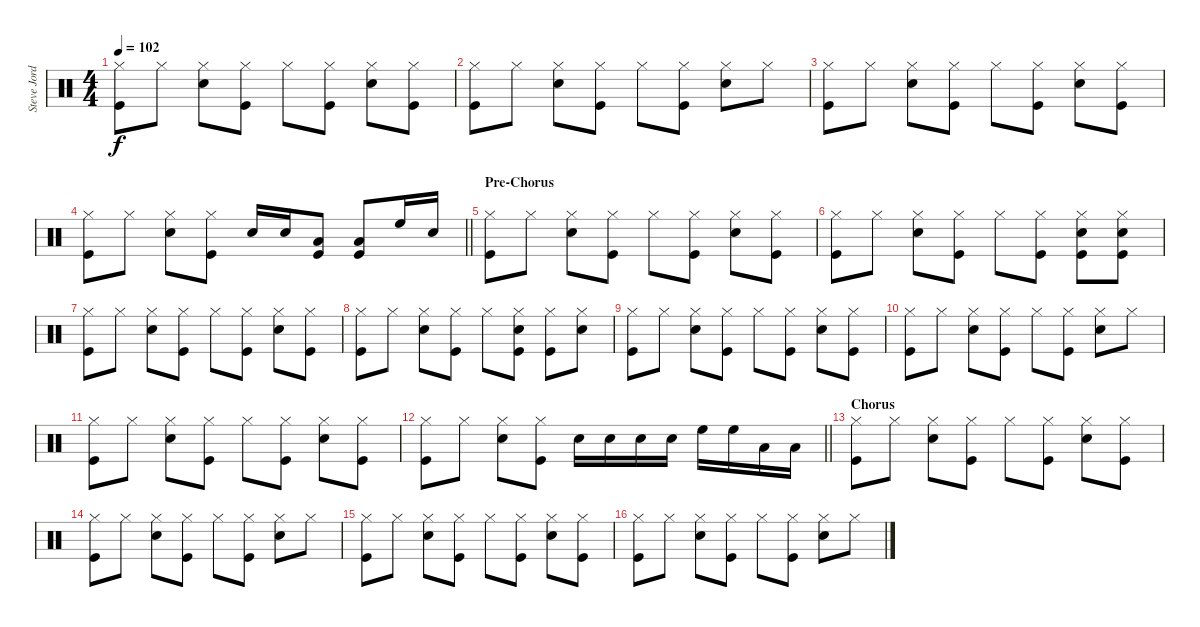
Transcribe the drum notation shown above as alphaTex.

\track ("Steve Jordan (Drums)" "Steve Jord") {instrument percussion}
\staff {score}
\articulation defaults
\ts (4 4)
\tempo 102
\clef neutral
\ks c
("Hi-Hat (closed)" "Kick (hit)").8{dy f} "Hi-Hat (closed)".8 ("Hi-Hat (closed)" "Snare (hit) 2").8 ("Hi-Hat (closed)" "Kick (hit)").8 "Hi-Hat (closed)".8 ("Hi-Hat (closed)" "Kick (hit)").8 ("Hi-Hat (closed)" "Snare (hit) 2").8 ("Hi-Hat (closed)" "Kick (hit)").8 |
("Hi-Hat (closed)" "Kick (hit)").8 "Hi-Hat (closed)".8 ("Hi-Hat (closed)" "Snare (hit) 2").8 ("Hi-Hat (closed)" "Kick (hit)").8 "Hi-Hat (closed)".8 ("Hi-Hat (closed)" "Kick (hit)").8 ("Hi-Hat (closed)" "Snare (hit) 2").8 "Hi-Hat (closed)".8 |
("Hi-Hat (closed)" "Kick (hit)").8 "Hi-Hat (closed)".8 ("Hi-Hat (closed)" "Snare (hit) 2").8 ("Hi-Hat (closed)" "Kick (hit)").8 "Hi-Hat (closed)".8 ("Hi-Hat (closed)" "Kick (hit)").8 ("Hi-Hat (closed)" "Snare (hit) 2").8 ("Hi-Hat (closed)" "Kick (hit)").8 |
\barLineRight lightlight
("Hi-Hat (closed)" "Kick (hit)").8 "Hi-Hat (closed)".8 ("Hi-Hat (closed)" "Snare (hit) 2").8 ("Hi-Hat (closed)" "Kick (hit)").8 "Snare (hit) 2".16 "Snare (hit) 2".16 ("Low Tom (hit)" "Kick (hit)").8 ("Low Tom (hit)" "Kick (hit)").8 "High Floor Tom (hit)".16 "Snare (hit) 2".16 |
\section ("" "Pre-Chorus")
("Hi-Hat (closed)" "Kick (hit)").8 "Hi-Hat (closed)".8 ("Hi-Hat (closed)" "Snare (hit) 2").8 ("Hi-Hat (closed)" "Kick (hit)").8 "Hi-Hat (closed)".8 ("Hi-Hat (closed)" "Kick (hit)").8 ("Hi-Hat (closed)" "Snare (hit) 2").8 ("Hi-Hat (closed)" "Kick (hit)").8 |
("Hi-Hat (closed)" "Kick (hit)").8 "Hi-Hat (closed)".8 ("Hi-Hat (closed)" "Snare (hit) 2").8 ("Hi-Hat (closed)" "Kick (hit)").8 "Hi-Hat (closed)".8 ("Hi-Hat (closed)" "Kick (hit)").8 ("Hi-Hat (closed)" "Snare (hit) 2" "Kick (hit)").8 ("Hi-Hat (closed)" "Snare (hit) 2" "Kick (hit)").8 |
("Hi-Hat (closed)" "Kick (hit)").8 "Hi-Hat (closed)".8 ("Hi-Hat (closed)" "Snare (hit) 2").8 ("Hi-Hat (closed)" "Kick (hit)").8 "Hi-Hat (closed)".8 ("Hi-Hat (closed)" "Kick (hit)").8 ("Hi-Hat (closed)" "Snare (hit) 2").8 ("Hi-Hat (closed)" "Kick (hit)").8 |
("Hi-Hat (closed)" "Kick (hit)").8 "Hi-Hat (closed)".8 ("Hi-Hat (closed)" "Snare (hit) 2").8 ("Hi-Hat (closed)" "Kick (hit)").8 "Hi-Hat (closed)".8 ("Hi-Hat (closed)" "Snare (hit) 2" "Kick (hit)").8 ("Hi-Hat (closed)" "Kick (hit)").8 ("Hi-Hat (closed)" "Snare (hit) 2").8 |
("Hi-Hat (closed)" "Kick (hit)").8 "Hi-Hat (closed)".8 ("Hi-Hat (closed)" "Snare (hit) 2").8 ("Hi-Hat (closed)" "Kick (hit)").8 "Hi-Hat (closed)".8 ("Hi-Hat (closed)" "Kick (hit)").8 ("Hi-Hat (closed)" "Snare (hit) 2").8 ("Hi-Hat (closed)" "Kick (hit)").8 |
("Hi-Hat (closed)" "Kick (hit)").8 "Hi-Hat (closed)".8 ("Hi-Hat (closed)" "Snare (hit) 2").8 ("Hi-Hat (closed)" "Kick (hit)").8 "Hi-Hat (closed)".8 ("Hi-Hat (closed)" "Kick (hit)").8 ("Hi-Hat (closed)" "Snare (hit) 2").8 "Hi-Hat (closed)".8 |
("Hi-Hat (closed)" "Kick (hit)").8 "Hi-Hat (closed)".8 ("Hi-Hat (closed)" "Snare (hit) 2").8 ("Hi-Hat (closed)" "Kick (hit)").8 "Hi-Hat (closed)".8 ("Hi-Hat (closed)" "Kick (hit)").8 ("Hi-Hat (closed)" "Snare (hit) 2").8 ("Hi-Hat (closed)" "Kick (hit)").8 |
\barLineRight lightlight
("Hi-Hat (closed)" "Kick (hit)").8 "Hi-Hat (closed)".8 ("Hi-Hat (closed)" "Snare (hit) 2").8 ("Hi-Hat (closed)" "Kick (hit)").8 "Snare (hit) 2".16 "Snare (hit) 2".16 "Snare (hit) 2".16 "Snare (hit) 2".16 "High Floor Tom (hit)".16 "High Floor Tom (hit)".16 "Low Tom (hit)".16 "Low Tom (hit)".16 |
\section ("" "Chorus")
("Hi-Hat (closed)" "Kick (hit)").8 "Hi-Hat (closed)".8 ("Hi-Hat (closed)" "Snare (hit) 2").8 ("Hi-Hat (closed)" "Kick (hit)").8 "Hi-Hat (closed)".8 ("Hi-Hat (closed)" "Kick (hit)").8 ("Hi-Hat (closed)" "Snare (hit) 2").8 ("Hi-Hat (closed)" "Kick (hit)").8 |
("Hi-Hat (closed)" "Kick (hit)").8 "Hi-Hat (closed)".8 ("Hi-Hat (closed)" "Snare (hit) 2").8 ("Hi-Hat (closed)" "Kick (hit)").8 "Hi-Hat (closed)".8 ("Hi-Hat (closed)" "Kick (hit)").8 ("Hi-Hat (closed)" "Snare (hit) 2").8 "Hi-Hat (closed)".8 |
("Hi-Hat (closed)" "Kick (hit)").8 "Hi-Hat (closed)".8 ("Hi-Hat (closed)" "Snare (hit) 2").8 ("Hi-Hat (closed)" "Kick (hit)").8 "Hi-Hat (closed)".8 ("Hi-Hat (closed)" "Kick (hit)").8 ("Hi-Hat (closed)" "Snare (hit) 2").8 ("Hi-Hat (closed)" "Kick (hit)").8 |
("Hi-Hat (closed)" "Kick (hit)").8 "Hi-Hat (closed)".8 ("Hi-Hat (closed)" "Snare (hit) 2").8 ("Hi-Hat (closed)" "Kick (hit)").8 "Hi-Hat (closed)".8 ("Hi-Hat (closed)" "Kick (hit)").8 ("Hi-Hat (closed)" "Snare (hit) 2").8 "Hi-Hat (closed)".8
